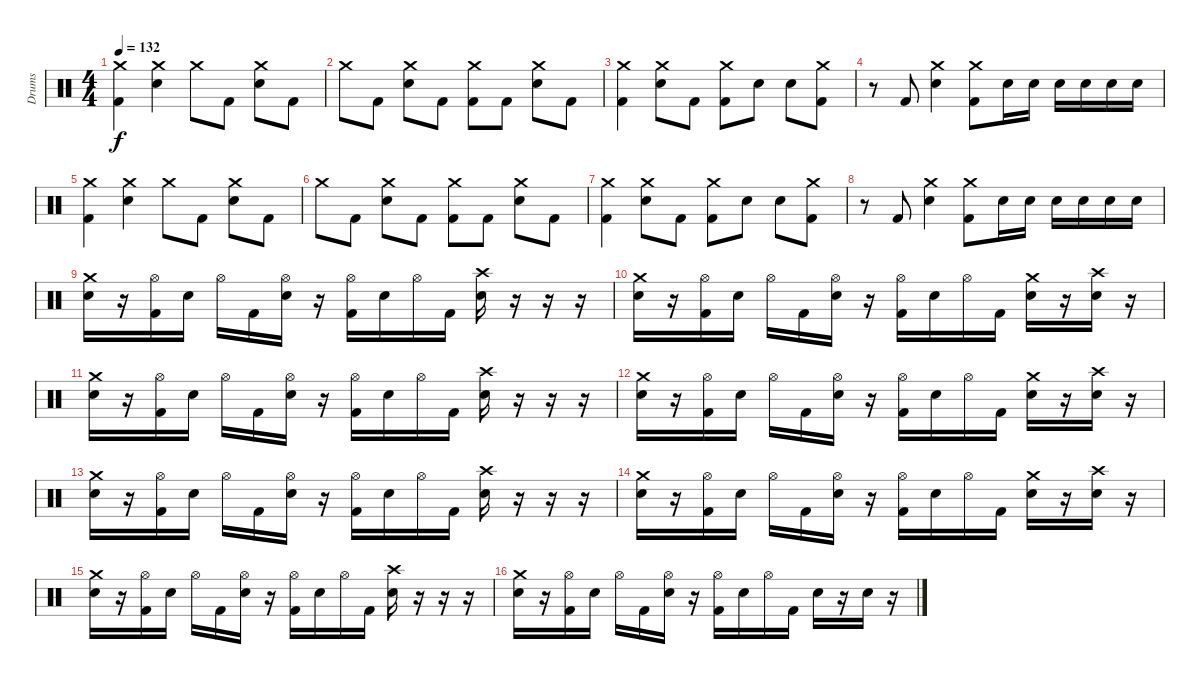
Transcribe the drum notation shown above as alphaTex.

\track ("Drums" "Drums") {instrument percussion}
\staff
\articulation defaults
\ts (4 4)
\tempo 132
\clef neutral
\ks c
("Crash medium (hit)" "Kick (hit) 2").4{dy f} ("Crash medium (hit)" "Snare (hit) 2").4 "Crash medium (hit)".8 "Kick (hit) 2".8 ("Crash medium (hit)" "Snare (hit) 2").8 "Kick (hit) 2".8 |
"Crash medium (hit)".8 "Kick (hit) 2".8 ("Crash medium (hit)" "Snare (hit) 2").8 "Kick (hit) 2".8 ("Crash medium (hit)" "Kick (hit) 2").8 "Kick (hit) 2".8 ("Crash medium (hit)" "Snare (hit) 2").8 "Kick (hit) 2".8 |
("Crash medium (hit)" "Kick (hit) 2").4 ("Crash medium (hit)" "Snare (hit) 2").8 "Kick (hit) 2".8 ("Crash medium (hit)" "Kick (hit) 2").8 "Snare (hit) 2".8 "Snare (hit) 2".8 ("Crash medium (hit)" "Kick (hit) 2").8 |
r.8 "Kick (hit) 2".8 ("Crash medium (hit)" "Snare (hit) 2").4 ("Crash medium (hit)" "Kick (hit) 2").8 "Snare (hit) 2".16 "Snare (hit) 2".16 "Snare (hit) 2".16 "Snare (hit) 2".16 "Snare (hit) 2".16 "Snare (hit) 2".16 |
("Crash medium (hit)" "Kick (hit) 2").4 ("Crash medium (hit)" "Snare (hit) 2").4 "Crash medium (hit)".8 "Kick (hit) 2".8 ("Crash medium (hit)" "Snare (hit) 2").8 "Kick (hit) 2".8 |
"Crash medium (hit)".8 "Kick (hit) 2".8 ("Crash medium (hit)" "Snare (hit) 2").8 "Kick (hit) 2".8 ("Crash medium (hit)" "Kick (hit) 2").8 "Kick (hit) 2".8 ("Crash medium (hit)" "Snare (hit) 2").8 "Kick (hit) 2".8 |
("Crash medium (hit)" "Kick (hit) 2").4 ("Crash medium (hit)" "Snare (hit) 2").8 "Kick (hit) 2".8 ("Crash medium (hit)" "Kick (hit) 2").8 "Snare (hit) 2".8 "Snare (hit) 2".8 ("Crash medium (hit)" "Kick (hit) 2").8 |
r.8 "Kick (hit) 2".8 ("Crash medium (hit)" "Snare (hit) 2").4 ("Crash medium (hit)" "Kick (hit) 2").8 "Snare (hit) 2".16 "Snare (hit) 2".16 "Snare (hit) 2".16 "Snare (hit) 2".16 "Snare (hit) 2".16 "Snare (hit) 2".16 |
("Crash medium (hit)" "Snare (hit) 2").16 r.16 ("Hi-Hat (open)" "Kick (hit) 2").16 "Snare (hit) 2".16 "Hi-Hat (open)".16 "Kick (hit) 2".16 ("Hi-Hat (open)" "Snare (hit) 2").16 r.16 ("Hi-Hat (open)" "Kick (hit) 2").16 "Snare (hit) 2".16 "Hi-Hat (open)".16 "Kick (hit) 2".16 ("Crash high (hit)" "Snare (hit) 2").16 r.16 r.16 r.16 |
("Crash medium (hit)" "Snare (hit) 2").16 r.16 ("Hi-Hat (open)" "Kick (hit) 2").16 "Snare (hit) 2".16 "Hi-Hat (open)".16 "Kick (hit) 2".16 ("Hi-Hat (open)" "Snare (hit) 2").16 r.16 ("Hi-Hat (open)" "Kick (hit) 2").16 "Snare (hit) 2".16 "Hi-Hat (open)".16 "Kick (hit) 2".16 ("Crash medium (hit)" "Snare (hit) 2").16 r.16 ("Crash high (hit)" "Snare (hit) 2").16 r.16 |
("Crash medium (hit)" "Snare (hit) 2").16 r.16 ("Hi-Hat (open)" "Kick (hit) 2").16 "Snare (hit) 2".16 "Hi-Hat (open)".16 "Kick (hit) 2".16 ("Hi-Hat (open)" "Snare (hit) 2").16 r.16 ("Hi-Hat (open)" "Kick (hit) 2").16 "Snare (hit) 2".16 "Hi-Hat (open)".16 "Kick (hit) 2".16 ("Crash high (hit)" "Snare (hit) 2").16 r.16 r.16 r.16 |
("Crash medium (hit)" "Snare (hit) 2").16 r.16 ("Hi-Hat (open)" "Kick (hit) 2").16 "Snare (hit) 2".16 "Hi-Hat (open)".16 "Kick (hit) 2".16 ("Hi-Hat (open)" "Snare (hit) 2").16 r.16 ("Hi-Hat (open)" "Kick (hit) 2").16 "Snare (hit) 2".16 "Hi-Hat (open)".16 "Kick (hit) 2".16 ("Crash medium (hit)" "Snare (hit) 2").16 r.16 ("Crash high (hit)" "Snare (hit) 2").16 r.16 |
("Crash medium (hit)" "Snare (hit) 2").16 r.16 ("Hi-Hat (open)" "Kick (hit) 2").16 "Snare (hit) 2".16 "Hi-Hat (open)".16 "Kick (hit) 2".16 ("Hi-Hat (open)" "Snare (hit) 2").16 r.16 ("Hi-Hat (open)" "Kick (hit) 2").16 "Snare (hit) 2".16 "Hi-Hat (open)".16 "Kick (hit) 2".16 ("Crash high (hit)" "Snare (hit) 2").16 r.16 r.16 r.16 |
("Crash medium (hit)" "Snare (hit) 2").16 r.16 ("Hi-Hat (open)" "Kick (hit) 2").16 "Snare (hit) 2".16 "Hi-Hat (open)".16 "Kick (hit) 2".16 ("Hi-Hat (open)" "Snare (hit) 2").16 r.16 ("Hi-Hat (open)" "Kick (hit) 2").16 "Snare (hit) 2".16 "Hi-Hat (open)".16 "Kick (hit) 2".16 ("Crash medium (hit)" "Snare (hit) 2").16 r.16 ("Crash high (hit)" "Snare (hit) 2").16 r.16 |
("Crash medium (hit)" "Snare (hit) 2").16 r.16 ("Hi-Hat (open)" "Kick (hit) 2").16 "Snare (hit) 2".16 "Hi-Hat (open)".16 "Kick (hit) 2".16 ("Hi-Hat (open)" "Snare (hit) 2").16 r.16 ("Hi-Hat (open)" "Kick (hit) 2").16 "Snare (hit) 2".16 "Hi-Hat (open)".16 "Kick (hit) 2".16 ("Crash high (hit)" "Snare (hit) 2").16 r.16 r.16 r.16 |
("Crash medium (hit)" "Snare (hit) 2").16 r.16 ("Hi-Hat (open)" "Kick (hit) 2").16 "Snare (hit) 2".16 "Hi-Hat (open)".16 "Kick (hit) 2".16 ("Hi-Hat (open)" "Snare (hit) 2").16 r.16 ("Hi-Hat (open)" "Kick (hit) 2").16 "Snare (hit) 2".16 "Hi-Hat (open)".16 "Kick (hit) 2".16 "Snare (hit) 2".16 r.16 "Snare (hit) 2".16 r.16
